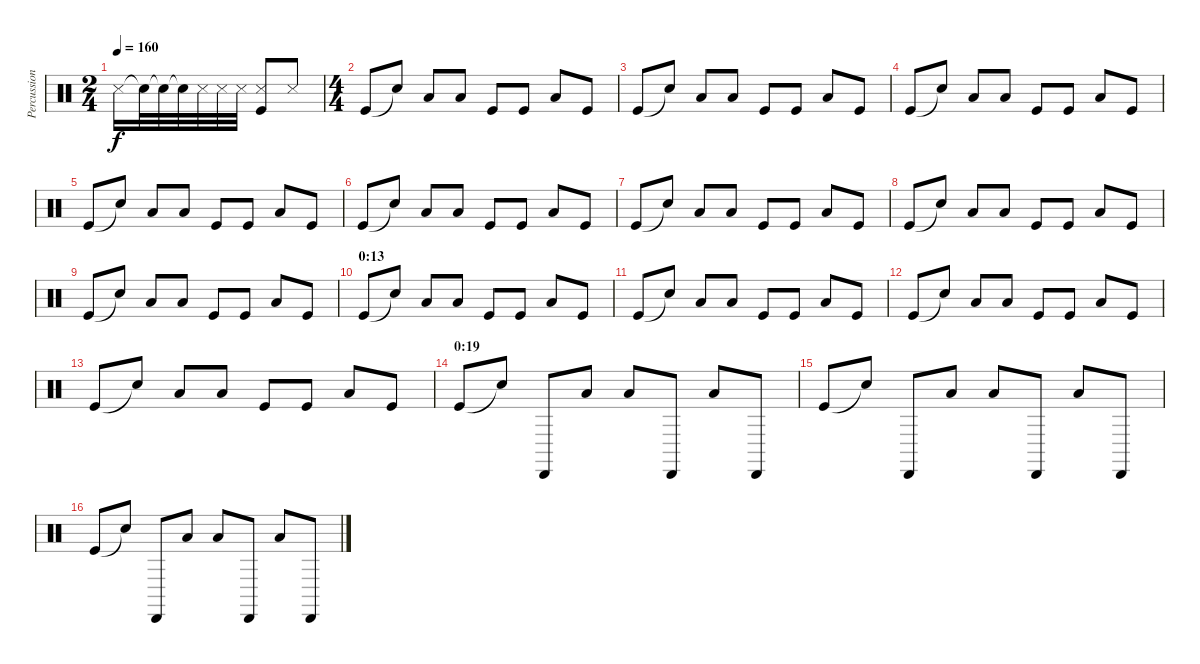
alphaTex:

\track ("Percussion" "Percussion") {instrument percussion}
\staff {score}
\articulation defaults
\ts (2 4)
\tempo 160
\clef neutral
\ks c "Metronome (hit)".16{dy f} "Snare (hit)"{t}.32 "Snare (hit)"{t}.32 "Snare (hit)"{t}.32 "Snare (side stick) 3".32 "Snare (side stick) 3".32 "Snare (side stick) 3".32
("Snare (side stick) 3" "Kick (hit)").8 "Snare (side stick) 3".8 |
\ts (4 4)
"Kick (hit)".8 "Snare (hit)"{t}.8 "Low Tom (hit)".8 "Low Tom (hit)".8 "Kick (hit)".8 "Kick (hit)".8 "Low Tom (hit)".8 "Kick (hit)".8 |
"Kick (hit)".8 "Snare (hit)"{t}.8 "Low Tom (hit)".8 "Low Tom (hit)".8 "Kick (hit)".8 "Kick (hit)".8 "Low Tom (hit)".8 "Kick (hit)".8 |
"Kick (hit)".8 "Snare (hit)"{t}.8 "Low Tom (hit)".8 "Low Tom (hit)".8 "Kick (hit)".8 "Kick (hit)".8 "Low Tom (hit)".8 "Kick (hit)".8 |
"Kick (hit)".8 "Snare (hit)"{t}.8 "Low Tom (hit)".8 "Low Tom (hit)".8 "Kick (hit)".8 "Kick (hit)".8 "Low Tom (hit)".8 "Kick (hit)".8 |
"Kick (hit)".8 "Snare (hit)"{t}.8 "Low Tom (hit)".8 "Low Tom (hit)".8 "Kick (hit)".8 "Kick (hit)".8 "Low Tom (hit)".8 "Kick (hit)".8 |
"Kick (hit)".8 "Snare (hit)"{t}.8 "Low Tom (hit)".8 "Low Tom (hit)".8 "Kick (hit)".8 "Kick (hit)".8 "Low Tom (hit)".8 "Kick (hit)".8 |
"Kick (hit)".8 "Snare (hit)"{t}.8 "Low Tom (hit)".8 "Low Tom (hit)".8 "Kick (hit)".8 "Kick (hit)".8 "Low Tom (hit)".8 "Kick (hit)".8 |
"Kick (hit)".8 "Snare (hit)"{t}.8 "Low Tom (hit)".8 "Low Tom (hit)".8 "Kick (hit)".8 "Kick (hit)".8 "Low Tom (hit)".8 "Kick (hit)".8 |
\section ("" "0:13")
"Kick (hit)".8 "Snare (hit)"{t}.8 "Low Tom (hit)".8 "Low Tom (hit)".8 "Kick (hit)".8 "Kick (hit)".8 "Low Tom (hit)".8 "Kick (hit)".8 |
"Kick (hit)".8 "Snare (hit)"{t}.8 "Low Tom (hit)".8 "Low Tom (hit)".8 "Kick (hit)".8 "Kick (hit)".8 "Low Tom (hit)".8 "Kick (hit)".8 |
"Kick (hit)".8 "Snare (hit)"{t}.8 "Low Tom (hit)".8 "Low Tom (hit)".8 "Kick (hit)".8 "Kick (hit)".8 "Low Tom (hit)".8 "Kick (hit)".8 |
"Kick (hit)".8 "Snare (hit)"{t}.8 "Low Tom (hit)".8 "Low Tom (hit)".8 "Kick (hit)".8 "Kick (hit)".8 "Low Tom (hit)".8 "Kick (hit)".8 |
\section ("" "0:19")
"Kick (hit)".8 "Snare (hit)"{t}.8 "Cabasa (hit)".8 "Low Tom (hit)".8 "Low Tom (hit)".8 "Cabasa (hit)".8 "Low Tom (hit)".8 "Cabasa (hit)".8 |
"Kick (hit)".8 "Snare (hit)"{t}.8 "Cabasa (hit)".8 "Low Tom (hit)".8 "Low Tom (hit)".8 "Cabasa (hit)".8 "Low Tom (hit)".8 "Cabasa (hit)".8 |
"Kick (hit)".8 "Snare (hit)"{t}.8 "Cabasa (hit)".8 "Low Tom (hit)".8 "Low Tom (hit)".8 "Cabasa (hit)".8 "Low Tom (hit)".8 "Cabasa (hit)".8
